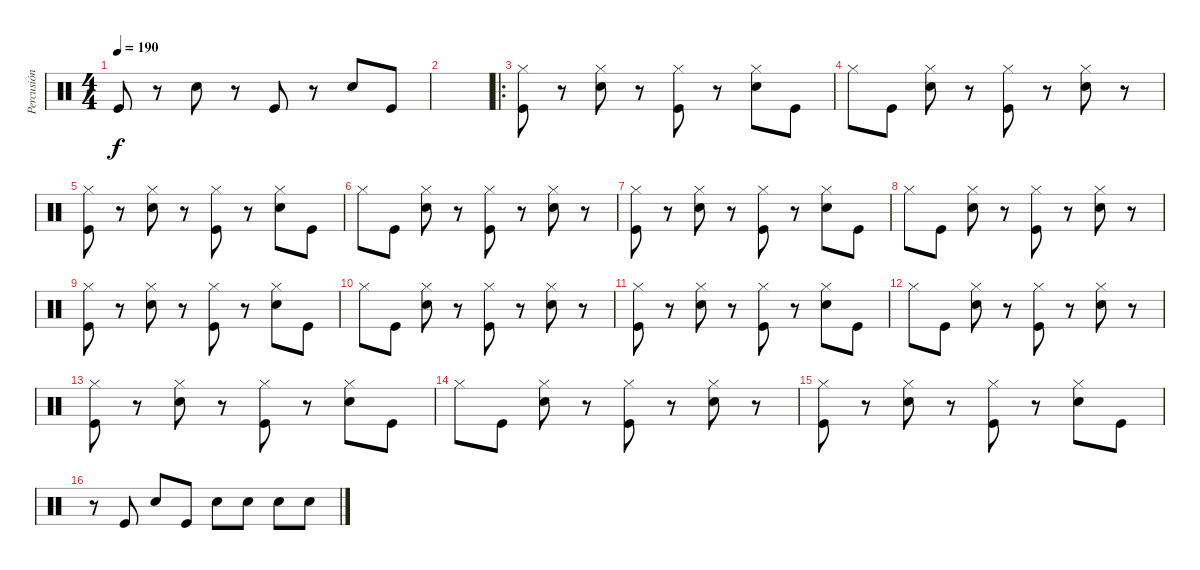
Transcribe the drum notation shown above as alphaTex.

\track ("Percusión" "Percusión") {instrument percussion}
\staff {score}
\articulation defaults
\ts (4 4)
\tempo 190
\clef neutral
\ks c "Kick (hit)".8{dy f}
r.8 "Snare (hit) 2".8 r.8 "Kick (hit)".8 r.8 "Snare (hit) 2".8 "Kick (hit)".8 |
|
\ro
("Hi-Hat (closed)" "Kick (hit)").8 r.8 ("Hi-Hat (closed)" "Snare (hit) 2").8 r.8 ("Hi-Hat (closed)" "Kick (hit)").8 r.8 ("Hi-Hat (closed)" "Snare (hit) 2").8 "Kick (hit)".8 |
"Hi-Hat (closed)".8 "Kick (hit)".8 ("Hi-Hat (closed)" "Snare (hit) 2").8 r.8 ("Hi-Hat (closed)" "Kick (hit)").8 r.8 ("Hi-Hat (closed)" "Snare (hit) 2").8 r.8 |
("Hi-Hat (closed)" "Kick (hit)").8 r.8 ("Hi-Hat (closed)" "Snare (hit) 2").8 r.8 ("Hi-Hat (closed)" "Kick (hit)").8 r.8 ("Hi-Hat (closed)" "Snare (hit) 2").8 "Kick (hit)".8 |
"Hi-Hat (closed)".8 "Kick (hit)".8 ("Hi-Hat (closed)" "Snare (hit) 2").8 r.8 ("Hi-Hat (closed)" "Kick (hit)").8 r.8 ("Hi-Hat (closed)" "Snare (hit) 2").8 r.8 |
("Hi-Hat (closed)" "Kick (hit)").8 r.8 ("Hi-Hat (closed)" "Snare (hit) 2").8 r.8 ("Hi-Hat (closed)" "Kick (hit)").8 r.8 ("Hi-Hat (closed)" "Snare (hit) 2").8 "Kick (hit)".8 |
"Hi-Hat (closed)".8 "Kick (hit)".8 ("Hi-Hat (closed)" "Snare (hit) 2").8 r.8 ("Hi-Hat (closed)" "Kick (hit)").8 r.8 ("Hi-Hat (closed)" "Snare (hit) 2").8 r.8 |
("Hi-Hat (closed)" "Kick (hit)").8 r.8 ("Hi-Hat (closed)" "Snare (hit) 2").8 r.8 ("Hi-Hat (closed)" "Kick (hit)").8 r.8 ("Hi-Hat (closed)" "Snare (hit) 2").8 "Kick (hit)".8 |
"Hi-Hat (closed)".8 "Kick (hit)".8 ("Hi-Hat (closed)" "Snare (hit) 2").8 r.8 ("Hi-Hat (closed)" "Kick (hit)").8 r.8 ("Hi-Hat (closed)" "Snare (hit) 2").8 r.8 |
("Hi-Hat (closed)" "Kick (hit)").8 r.8 ("Hi-Hat (closed)" "Snare (hit) 2").8 r.8 ("Hi-Hat (closed)" "Kick (hit)").8 r.8 ("Hi-Hat (closed)" "Snare (hit) 2").8 "Kick (hit)".8 |
"Hi-Hat (closed)".8 "Kick (hit)".8 ("Hi-Hat (closed)" "Snare (hit) 2").8 r.8 ("Hi-Hat (closed)" "Kick (hit)").8 r.8 ("Hi-Hat (closed)" "Snare (hit) 2").8 r.8 |
("Hi-Hat (closed)" "Kick (hit)").8 r.8 ("Hi-Hat (closed)" "Snare (hit) 2").8 r.8 ("Hi-Hat (closed)" "Kick (hit)").8 r.8 ("Hi-Hat (closed)" "Snare (hit) 2").8 "Kick (hit)".8 |
"Hi-Hat (closed)".8 "Kick (hit)".8 ("Hi-Hat (closed)" "Snare (hit) 2").8 r.8 ("Hi-Hat (closed)" "Kick (hit)").8 r.8 ("Hi-Hat (closed)" "Snare (hit) 2").8 r.8 |
("Hi-Hat (closed)" "Kick (hit)").8 r.8 ("Hi-Hat (closed)" "Snare (hit) 2").8 r.8 ("Hi-Hat (closed)" "Kick (hit)").8 r.8 ("Hi-Hat (closed)" "Snare (hit) 2").8 "Kick (hit)".8 |
r.8 "Kick (hit)".8 "Snare (hit) 2".8 "Kick (hit)".8 "Snare (hit) 2".8 "Snare (hit) 2".8 "Snare (hit) 2".8 "Snare (hit) 2".8
